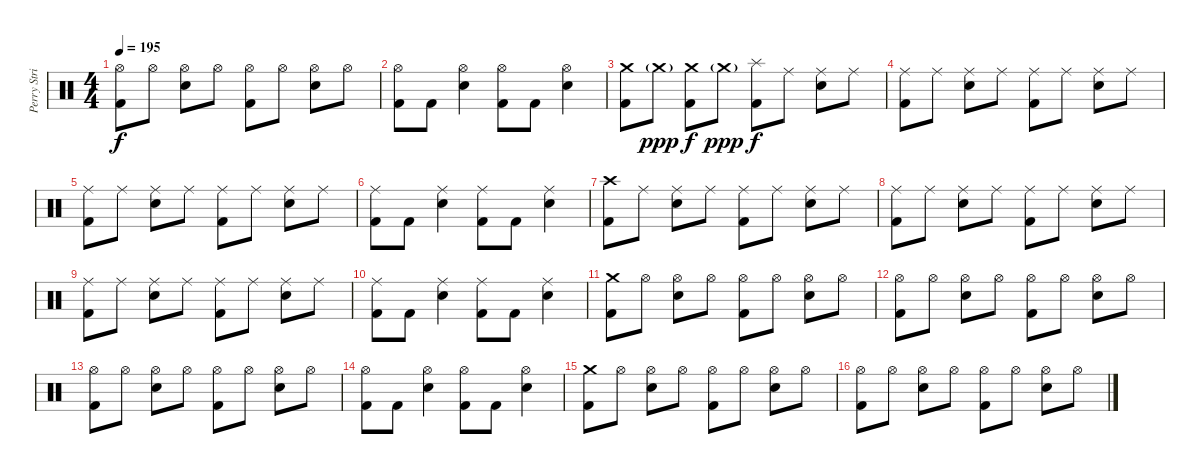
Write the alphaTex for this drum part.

\track ("Perry Strickland" "Perry Stri") {instrument percussion}
\staff {score}
\articulation defaults
\ts (4 4)
\tempo 195
\clef neutral
\ks c
("Hi-Hat (open)" "Kick (hit) 2").8{dy f} "Hi-Hat (open)".8 ("Hi-Hat (open)" "Electric Snare (hit)").8 "Hi-Hat (open)".8 ("Hi-Hat (open)" "Kick (hit) 2").8 "Hi-Hat (open)".8 ("Hi-Hat (open)" "Electric Snare (hit)").8 "Hi-Hat (open)".8 |
("Hi-Hat (open)" "Kick (hit) 2").8 "Kick (hit) 2".8 ("Hi-Hat (open)" "Electric Snare (hit)").4 ("Hi-Hat (open)" "Kick (hit) 2").8 "Kick (hit) 2".8 ("Hi-Hat (open)" "Electric Snare (hit)").4 |
("Crash medium (hit)" "Kick (hit) 2").8 "Crash medium (hit)"{g}.8{dy ppp} ("Crash medium (hit)" "Kick (hit) 2").8{dy f} "Crash medium (hit)"{g}.8{dy ppp} ("Splash (hit)" "Kick (hit) 2").8{dy f} "Ride (middle)".8 ("Ride (middle)" "Electric Snare (hit)").8 "Ride (middle)".8 |
("Ride (middle)" "Kick (hit) 2").8 "Ride (middle)".8 ("Ride (middle)" "Electric Snare (hit)").8 "Ride (middle)".8 ("Ride (middle)" "Kick (hit) 2").8 "Ride (middle)".8 ("Ride (middle)" "Electric Snare (hit)").8 "Ride (middle)".8 |
("Ride (middle)" "Kick (hit) 2").8 "Ride (middle)".8 ("Ride (middle)" "Electric Snare (hit)").8 "Ride (middle)".8 ("Ride (middle)" "Kick (hit) 2").8 "Ride (middle)".8 ("Ride (middle)" "Electric Snare (hit)").8 "Ride (middle)".8 |
("Ride (middle)" "Kick (hit) 2").8 "Kick (hit) 2".8 ("Ride (middle)" "Electric Snare (hit)").4 ("Ride (middle)" "Kick (hit) 2").8 "Kick (hit) 2".8 ("Ride (middle)" "Electric Snare (hit)").4 |
("Crash high (hit)" "Kick (hit) 2").8 "Ride (middle)".8 ("Ride (middle)" "Electric Snare (hit)").8 "Ride (middle)".8 ("Ride (middle)" "Kick (hit) 2").8 "Ride (middle)".8 ("Ride (middle)" "Electric Snare (hit)").8 "Ride (middle)".8 |
("Ride (middle)" "Kick (hit) 2").8 "Ride (middle)".8 ("Ride (middle)" "Electric Snare (hit)").8 "Ride (middle)".8 ("Ride (middle)" "Kick (hit) 2").8 "Ride (middle)".8 ("Ride (middle)" "Electric Snare (hit)").8 "Ride (middle)".8 |
("Ride (middle)" "Kick (hit) 2").8 "Ride (middle)".8 ("Ride (middle)" "Electric Snare (hit)").8 "Ride (middle)".8 ("Ride (middle)" "Kick (hit) 2").8 "Ride (middle)".8 ("Ride (middle)" "Electric Snare (hit)").8 "Ride (middle)".8 |
("Ride (middle)" "Kick (hit) 2").8 "Kick (hit) 2".8 ("Ride (middle)" "Electric Snare (hit)").4 ("Ride (middle)" "Kick (hit) 2").8 "Kick (hit) 2".8 ("Ride (middle)" "Electric Snare (hit)").4 |
("Crash medium (hit)" "Kick (hit) 2").8 "Hi-Hat (open)".8 ("Hi-Hat (open)" "Electric Snare (hit)").8 "Hi-Hat (open)".8 ("Hi-Hat (open)" "Kick (hit) 2").8 "Hi-Hat (open)".8 ("Hi-Hat (open)" "Electric Snare (hit)").8 "Hi-Hat (open)".8 |
("Hi-Hat (open)" "Kick (hit) 2").8 "Hi-Hat (open)".8 ("Hi-Hat (open)" "Electric Snare (hit)").8 "Hi-Hat (open)".8 ("Hi-Hat (open)" "Kick (hit) 2").8 "Hi-Hat (open)".8 ("Hi-Hat (open)" "Electric Snare (hit)").8 "Hi-Hat (open)".8 |
("Hi-Hat (open)" "Kick (hit) 2").8 "Hi-Hat (open)".8 ("Hi-Hat (open)" "Electric Snare (hit)").8 "Hi-Hat (open)".8 ("Hi-Hat (open)" "Kick (hit) 2").8 "Hi-Hat (open)".8 ("Hi-Hat (open)" "Electric Snare (hit)").8 "Hi-Hat (open)".8 |
("Hi-Hat (open)" "Kick (hit) 2").8 "Kick (hit) 2".8 ("Hi-Hat (open)" "Electric Snare (hit)").4 ("Hi-Hat (open)" "Kick (hit) 2").8 "Kick (hit) 2".8 ("Hi-Hat (open)" "Electric Snare (hit)").4 |
("Crash medium (hit)" "Kick (hit) 2").8 "Hi-Hat (open)".8 ("Hi-Hat (open)" "Electric Snare (hit)").8 "Hi-Hat (open)".8 ("Hi-Hat (open)" "Kick (hit) 2").8 "Hi-Hat (open)".8 ("Hi-Hat (open)" "Electric Snare (hit)").8 "Hi-Hat (open)".8 |
("Hi-Hat (open)" "Kick (hit) 2").8 "Hi-Hat (open)".8 ("Hi-Hat (open)" "Electric Snare (hit)").8 "Hi-Hat (open)".8 ("Hi-Hat (open)" "Kick (hit) 2").8 "Hi-Hat (open)".8 ("Hi-Hat (open)" "Electric Snare (hit)").8 "Hi-Hat (open)".8
